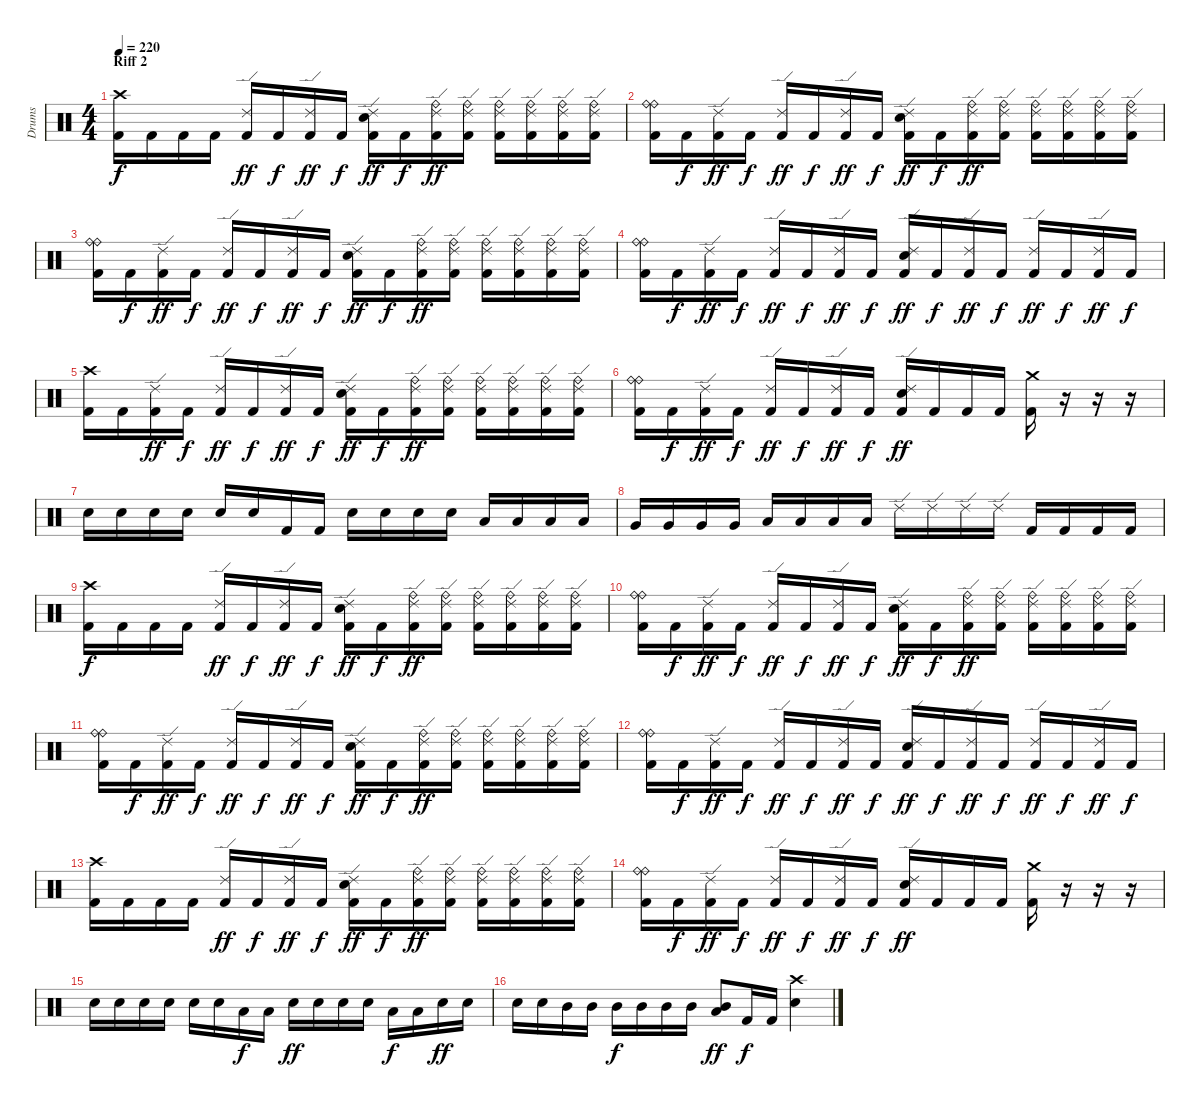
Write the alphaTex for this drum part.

\track ("Drums" "Drums") {instrument percussion}
\staff {score}
\articulation defaults
\ts (4 4)
\section ("" "Riff 2")
\tempo 220
\clef neutral
\ks c
("Crash high (hit)" "Kick (hit) 2").16{dy f} "Kick (hit) 2".16 "Kick (hit) 2".16 "Kick (hit) 2".16 ("Ride (edge) 2" "Kick (hit) 2").16{dy ff} "Kick (hit) 2".16{dy f} ("Ride (edge) 2" "Kick (hit) 2").16{dy ff} "Kick (hit) 2".16{dy f} ("Ride (edge) 2" "Electric Snare (hit)" "Kick (hit) 2").16{dy ff} "Kick (hit) 2".16{dy f} ("Ride (bell)" "Ride (edge) 2" "Kick (hit) 2").16{dy ff} ("Ride (bell)" "Ride (edge) 2" "Kick (hit) 2").16 ("Ride (bell)" "Ride (edge) 2" "Kick (hit) 2").16 ("Ride (bell)" "Ride (edge) 2" "Kick (hit) 2").16 ("Ride (bell)" "Ride (edge) 2" "Kick (hit) 2").16 ("Ride (bell)" "Ride (edge) 2" "Kick (hit) 2").16 |
("Ride (bell)" "Ride (bell)" "Kick (hit) 2").16 "Kick (hit) 2".16{dy f} ("Ride (edge) 2" "Kick (hit) 2").16{dy ff} "Kick (hit) 2".16{dy f} ("Ride (edge) 2" "Kick (hit) 2").16{dy ff} "Kick (hit) 2".16{dy f} ("Ride (edge) 2" "Kick (hit) 2").16{dy ff} "Kick (hit) 2".16{dy f} ("Ride (edge) 2" "Electric Snare (hit)" "Kick (hit) 2").16{dy ff} "Kick (hit) 2".16{dy f} ("Ride (bell)" "Ride (edge) 2" "Kick (hit) 2").16{dy ff} ("Ride (bell)" "Ride (edge) 2" "Kick (hit) 2").16 ("Ride (bell)" "Ride (edge) 2" "Kick (hit) 2").16 ("Ride (bell)" "Ride (edge) 2" "Kick (hit) 2").16 ("Ride (bell)" "Ride (edge) 2" "Kick (hit) 2").16 ("Ride (bell)" "Ride (edge) 2" "Kick (hit) 2").16 |
("Ride (bell)" "Ride (bell)" "Kick (hit) 2").16 "Kick (hit) 2".16{dy f} ("Ride (edge) 2" "Kick (hit) 2").16{dy ff} "Kick (hit) 2".16{dy f} ("Ride (edge) 2" "Kick (hit) 2").16{dy ff} "Kick (hit) 2".16{dy f} ("Ride (edge) 2" "Kick (hit) 2").16{dy ff} "Kick (hit) 2".16{dy f} ("Ride (edge) 2" "Electric Snare (hit)" "Kick (hit) 2").16{dy ff} "Kick (hit) 2".16{dy f} ("Ride (bell)" "Ride (edge) 2" "Kick (hit) 2").16{dy ff} ("Ride (bell)" "Ride (edge) 2" "Kick (hit) 2").16 ("Ride (bell)" "Ride (edge) 2" "Kick (hit) 2").16 ("Ride (bell)" "Ride (edge) 2" "Kick (hit) 2").16 ("Ride (bell)" "Ride (edge) 2" "Kick (hit) 2").16 ("Ride (bell)" "Ride (edge) 2" "Kick (hit) 2").16 |
("Ride (bell)" "Ride (bell)" "Kick (hit) 2").16 "Kick (hit) 2".16{dy f} ("Ride (edge) 2" "Kick (hit) 2").16{dy ff} "Kick (hit) 2".16{dy f} ("Ride (edge) 2" "Kick (hit) 2").16{dy ff} "Kick (hit) 2".16{dy f} ("Ride (edge) 2" "Kick (hit) 2").16{dy ff} "Kick (hit) 2".16{dy f} ("Ride (edge) 2" "Electric Snare (hit)" "Kick (hit) 2").16{dy ff} "Kick (hit) 2".16{dy f} ("Ride (edge) 2" "Kick (hit) 2").16{dy ff} "Kick (hit) 2".16{dy f} ("Ride (edge) 2" "Kick (hit) 2").16{dy ff} "Kick (hit) 2".16{dy f} ("Ride (edge) 2" "Kick (hit) 2").16{dy ff} "Kick (hit) 2".16{dy f} |
("Crash high (hit)" "Kick (hit) 2").16 "Kick (hit) 2".16 ("Ride (edge) 2" "Kick (hit) 2").16{dy ff} "Kick (hit) 2".16{dy f} ("Ride (edge) 2" "Kick (hit) 2").16{dy ff} "Kick (hit) 2".16{dy f} ("Ride (edge) 2" "Kick (hit) 2").16{dy ff} "Kick (hit) 2".16{dy f} ("Ride (edge) 2" "Electric Snare (hit)" "Kick (hit) 2").16{dy ff} "Kick (hit) 2".16{dy f} ("Ride (bell)" "Ride (edge) 2" "Kick (hit) 2").16{dy ff} ("Ride (bell)" "Ride (edge) 2" "Kick (hit) 2").16 ("Ride (bell)" "Ride (edge) 2" "Kick (hit) 2").16 ("Ride (bell)" "Ride (edge) 2" "Kick (hit) 2").16 ("Ride (bell)" "Ride (edge) 2" "Kick (hit) 2").16 ("Ride (bell)" "Ride (edge) 2" "Kick (hit) 2").16 |
("Ride (bell)" "Ride (bell)" "Kick (hit) 2").16 "Kick (hit) 2".16{dy f} ("Ride (edge) 2" "Kick (hit) 2").16{dy ff} "Kick (hit) 2".16{dy f} ("Ride (edge) 2" "Kick (hit) 2").16{dy ff} "Kick (hit) 2".16{dy f} ("Ride (edge) 2" "Kick (hit) 2").16{dy ff} "Kick (hit) 2".16{dy f} ("Ride (edge) 2" "Electric Snare (hit)" "Kick (hit) 2").16{dy ff} "Kick (hit) 2".16 "Kick (hit) 2".16 "Kick (hit) 2".16 ("Crash medium (hit)" "Kick (hit) 2").16 r.16 r.16 r.16 |
"Electric Snare (hit)".16 "Electric Snare (hit)".16 "Electric Snare (hit)".16 "Electric Snare (hit)".16 "Electric Snare (hit)".16 "Electric Snare (hit)".16 "Kick (hit) 2".16 "Kick (hit) 2".16 "Electric Snare (hit)".16 "Electric Snare (hit)".16 "Electric Snare (hit)".16 "Electric Snare (hit)".16 "Low Tom (hit)".16 "Low Tom (hit)".16 "Low Tom (hit)".16 "Low Tom (hit)".16 |
"Very Low Tom (hit)".16 "Very Low Tom (hit)".16 "Very Low Tom (hit)".16 "Very Low Tom (hit)".16 "Low Floor Tom (hit)".16 "Low Floor Tom (hit)".16 "Low Floor Tom (hit)".16 "Low Floor Tom (hit)".16 "Ride (edge) 2".16 "Ride (edge) 2".16 "Ride (edge) 2".16 "Ride (edge) 2".16 "Kick (hit) 2".16 "Kick (hit) 2".16 "Kick (hit) 2".16 "Kick (hit) 2".16 |
("Crash high (hit)" "Kick (hit) 2").16{dy f} "Kick (hit) 2".16 "Kick (hit) 2".16 "Kick (hit) 2".16 ("Ride (edge) 2" "Kick (hit) 2").16{dy ff} "Kick (hit) 2".16{dy f} ("Ride (edge) 2" "Kick (hit) 2").16{dy ff} "Kick (hit) 2".16{dy f} ("Ride (edge) 2" "Electric Snare (hit)" "Kick (hit) 2").16{dy ff} "Kick (hit) 2".16{dy f} ("Ride (bell)" "Ride (edge) 2" "Kick (hit) 2").16{dy ff} ("Ride (bell)" "Ride (edge) 2" "Kick (hit) 2").16 ("Ride (bell)" "Ride (edge) 2" "Kick (hit) 2").16 ("Ride (bell)" "Ride (edge) 2" "Kick (hit) 2").16 ("Ride (bell)" "Ride (edge) 2" "Kick (hit) 2").16 ("Ride (bell)" "Ride (edge) 2" "Kick (hit) 2").16 |
("Ride (bell)" "Ride (bell)" "Kick (hit) 2").16 "Kick (hit) 2".16{dy f} ("Ride (edge) 2" "Kick (hit) 2").16{dy ff} "Kick (hit) 2".16{dy f} ("Ride (edge) 2" "Kick (hit) 2").16{dy ff} "Kick (hit) 2".16{dy f} ("Ride (edge) 2" "Kick (hit) 2").16{dy ff} "Kick (hit) 2".16{dy f} ("Ride (edge) 2" "Electric Snare (hit)" "Kick (hit) 2").16{dy ff} "Kick (hit) 2".16{dy f} ("Ride (bell)" "Ride (edge) 2" "Kick (hit) 2").16{dy ff} ("Ride (bell)" "Ride (edge) 2" "Kick (hit) 2").16 ("Ride (bell)" "Ride (edge) 2" "Kick (hit) 2").16 ("Ride (bell)" "Ride (edge) 2" "Kick (hit) 2").16 ("Ride (bell)" "Ride (edge) 2" "Kick (hit) 2").16 ("Ride (bell)" "Ride (edge) 2" "Kick (hit) 2").16 |
("Ride (bell)" "Ride (bell)" "Kick (hit) 2").16 "Kick (hit) 2".16{dy f} ("Ride (edge) 2" "Kick (hit) 2").16{dy ff} "Kick (hit) 2".16{dy f} ("Ride (edge) 2" "Kick (hit) 2").16{dy ff} "Kick (hit) 2".16{dy f} ("Ride (edge) 2" "Kick (hit) 2").16{dy ff} "Kick (hit) 2".16{dy f} ("Ride (edge) 2" "Electric Snare (hit)" "Kick (hit) 2").16{dy ff} "Kick (hit) 2".16{dy f} ("Ride (bell)" "Ride (edge) 2" "Kick (hit) 2").16{dy ff} ("Ride (bell)" "Ride (edge) 2" "Kick (hit) 2").16 ("Ride (bell)" "Ride (edge) 2" "Kick (hit) 2").16 ("Ride (bell)" "Ride (edge) 2" "Kick (hit) 2").16 ("Ride (bell)" "Ride (edge) 2" "Kick (hit) 2").16 ("Ride (bell)" "Ride (edge) 2" "Kick (hit) 2").16 |
("Ride (bell)" "Ride (bell)" "Kick (hit) 2").16 "Kick (hit) 2".16{dy f} ("Ride (edge) 2" "Kick (hit) 2").16{dy ff} "Kick (hit) 2".16{dy f} ("Ride (edge) 2" "Kick (hit) 2").16{dy ff} "Kick (hit) 2".16{dy f} ("Ride (edge) 2" "Kick (hit) 2").16{dy ff} "Kick (hit) 2".16{dy f} ("Ride (edge) 2" "Electric Snare (hit)" "Kick (hit) 2").16{dy ff} "Kick (hit) 2".16{dy f} ("Ride (edge) 2" "Kick (hit) 2").16{dy ff} "Kick (hit) 2".16{dy f} ("Ride (edge) 2" "Kick (hit) 2").16{dy ff} "Kick (hit) 2".16{dy f} ("Ride (edge) 2" "Kick (hit) 2").16{dy ff} "Kick (hit) 2".16{dy f} |
("Crash high (hit)" "Kick (hit) 2").16 "Kick (hit) 2".16 "Kick (hit) 2".16 "Kick (hit) 2".16 ("Ride (edge) 2" "Kick (hit) 2").16{dy ff} "Kick (hit) 2".16{dy f} ("Ride (edge) 2" "Kick (hit) 2").16{dy ff} "Kick (hit) 2".16{dy f} ("Ride (edge) 2" "Electric Snare (hit)" "Kick (hit) 2").16{dy ff} "Kick (hit) 2".16{dy f} ("Ride (bell)" "Ride (edge) 2" "Kick (hit) 2").16{dy ff} ("Ride (bell)" "Ride (edge) 2" "Kick (hit) 2").16 ("Ride (bell)" "Ride (edge) 2" "Kick (hit) 2").16 ("Ride (bell)" "Ride (edge) 2" "Kick (hit) 2").16 ("Ride (bell)" "Ride (edge) 2" "Kick (hit) 2").16 ("Ride (bell)" "Ride (edge) 2" "Kick (hit) 2").16 |
("Ride (bell)" "Ride (bell)" "Kick (hit) 2").16 "Kick (hit) 2".16{dy f} ("Ride (edge) 2" "Kick (hit) 2").16{dy ff} "Kick (hit) 2".16{dy f} ("Ride (edge) 2" "Kick (hit) 2").16{dy ff} "Kick (hit) 2".16{dy f} ("Ride (edge) 2" "Kick (hit) 2").16{dy ff} "Kick (hit) 2".16{dy f} ("Ride (edge) 2" "Electric Snare (hit)" "Kick (hit) 2").16{dy ff} "Kick (hit) 2".16 "Kick (hit) 2".16 "Kick (hit) 2".16 ("Crash medium (hit)" "Kick (hit) 2").16 r.16 r.16 r.16 |
"Electric Snare (hit)".16 "Electric Snare (hit)".16 "Electric Snare (hit)".16 "Electric Snare (hit)".16 "Electric Snare (hit)".16 "Electric Snare (hit)".16 "Low Tom (hit)".16{dy f} "Low Tom (hit)".16 "Electric Snare (hit)".16{dy ff} "Electric Snare (hit)".16 "Electric Snare (hit)".16 "Electric Snare (hit)".16 "Low Tom (hit)".16{dy f} "Low Tom (hit)".16 "Electric Snare (hit)".16{dy ff} "Electric Snare (hit)".16 |
"Electric Snare (hit)".16 "Electric Snare (hit)".16 "Mid Tom (hit)".16 "Mid Tom (hit)".16 "Mid Tom (hit)".16{dy f} "Mid Tom (hit)".16 "Mid Tom (hit)".16 "Mid Tom (hit)".16 ("Mid Tom (hit)" "Low Tom (hit)").8{dy ff} "Kick (hit) 2".16{dy f} "Kick (hit) 2".16 ("Crash high (hit)" "Electric Snare (hit)").4
